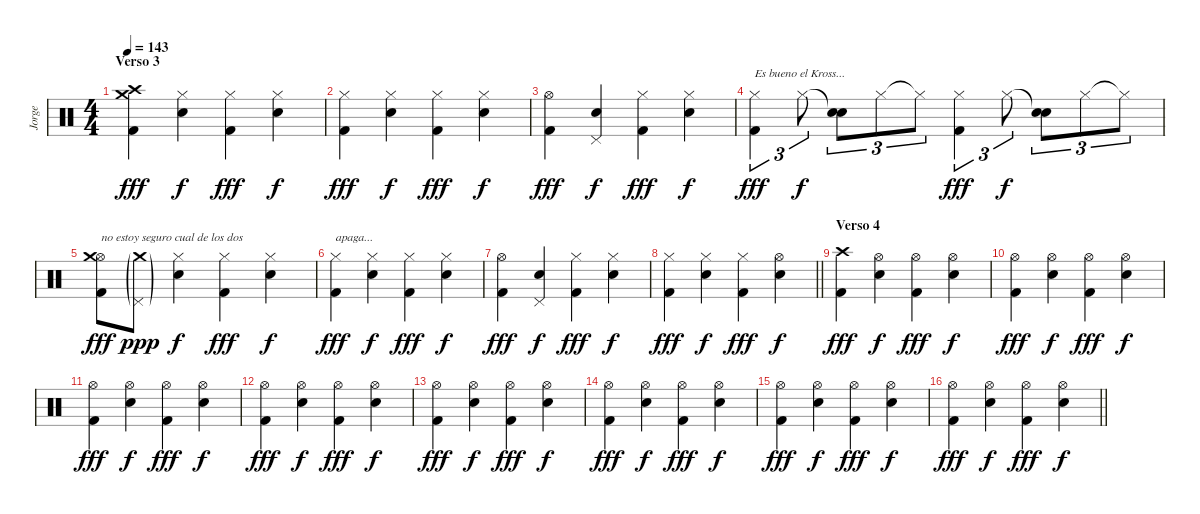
\track ("Jorge" "Jorge") {instrument percussion}
\staff {score}
\articulation defaults
\ts (4 4)
\section ("" "Verso 3")
\tempo 143
\clef neutral
\ks c
("Crash high (hit)" "Crash medium (hit)" "Kick (hit) 2").4{dy fff} ("Hi-Hat (closed)" "Electric Snare (hit)").4{dy f} ("Hi-Hat (closed)" "Kick (hit) 2").4{dy fff} ("Hi-Hat (closed)" "Electric Snare (hit)").4{dy f} |
("Hi-Hat (closed)" "Kick (hit) 2").4{dy fff} ("Hi-Hat (closed)" "Electric Snare (hit)").4{dy f} ("Hi-Hat (closed)" "Kick (hit) 2").4{dy fff} ("Hi-Hat (closed)" "Electric Snare (hit)").4{dy f} |
("Hi-Hat (open)" "Kick (hit) 2").4{dy fff} ("Pedal Hi-Hat (hit)" "Electric Snare (hit)").4{dy f} ("Hi-Hat (closed)" "Kick (hit) 2").4{dy fff} ("Hi-Hat (closed)" "Electric Snare (hit)").4{dy f} |
("Hi-Hat (closed)" "Kick (hit) 2").4{tu (3 2) txt "Es bueno el Kross..." dy fff} "Hi-Hat (closed)".8{tu (3 2) dy f} ("Snare (hit)"{t} "Electric Snare (hit)").8{tu (3 2)} "Hi-Hat (closed)".8{tu (3 2)} "Hi-Hat (closed)"{t}.8{tu (3 2)} ("Hi-Hat (closed)" "Kick (hit) 2").4{tu (3 2) dy fff} "Hi-Hat (closed)".8{tu (3 2) dy f} ("Snare (hit)"{t} "Electric Snare (hit)").8{tu (3 2)} "Hi-Hat (closed)".8{tu (3 2)} "Hi-Hat (closed)"{t}.8{tu (3 2)} |
("Hi-Hat (open)" "Crash medium (hit)" "Kick (hit) 2").8{txt "no estoy seguro cual de los dos" dy fff} ("Pedal Hi-Hat (hit)"{g} "Crash medium (hit)"{g}).8{dy ppp} ("Hi-Hat (closed)" "Electric Snare (hit)").4{dy f} ("Hi-Hat (closed)" "Kick (hit) 2").4{dy fff} ("Hi-Hat (closed)" "Electric Snare (hit)").4{dy f} |
("Hi-Hat (closed)" "Kick (hit) 2").4{txt "apaga..." dy fff} ("Hi-Hat (closed)" "Electric Snare (hit)").4{dy f} ("Hi-Hat (closed)" "Kick (hit) 2").4{dy fff} ("Hi-Hat (closed)" "Electric Snare (hit)").4{dy f} |
("Hi-Hat (open)" "Kick (hit) 2").4{dy fff} ("Pedal Hi-Hat (hit)" "Electric Snare (hit)").4{dy f} ("Hi-Hat (closed)" "Kick (hit) 2").4{dy fff} ("Hi-Hat (closed)" "Electric Snare (hit)").4{dy f} |
\barLineRight lightlight
("Hi-Hat (closed)" "Kick (hit) 2").4{dy fff} ("Hi-Hat (closed)" "Electric Snare (hit)").4{dy f} ("Hi-Hat (closed)" "Kick (hit) 2").4{dy fff} ("Hi-Hat (open)" "Electric Snare (hit)").4{dy f} |
\section ("" "Verso 4")
("Crash high (hit)" "Kick (hit) 2").4{dy fff} ("Hi-Hat (open)" "Electric Snare (hit)").4{dy f} ("Hi-Hat (open)" "Kick (hit) 2").4{dy fff} ("Hi-Hat (open)" "Electric Snare (hit)").4{dy f} |
("Hi-Hat (open)" "Kick (hit) 2").4{dy fff} ("Hi-Hat (open)" "Electric Snare (hit)").4{dy f} ("Hi-Hat (open)" "Kick (hit) 2").4{dy fff} ("Hi-Hat (open)" "Electric Snare (hit)").4{dy f} |
("Hi-Hat (open)" "Kick (hit) 2").4{dy fff} ("Hi-Hat (open)" "Electric Snare (hit)").4{dy f} ("Hi-Hat (open)" "Kick (hit) 2").4{dy fff} ("Hi-Hat (open)" "Electric Snare (hit)").4{dy f} |
("Hi-Hat (open)" "Kick (hit) 2").4{dy fff} ("Hi-Hat (open)" "Electric Snare (hit)").4{dy f} ("Hi-Hat (open)" "Kick (hit) 2").4{dy fff} ("Hi-Hat (open)" "Electric Snare (hit)").4{dy f} |
("Hi-Hat (open)" "Kick (hit) 2").4{dy fff} ("Hi-Hat (open)" "Electric Snare (hit)").4{dy f} ("Hi-Hat (open)" "Kick (hit) 2").4{dy fff} ("Hi-Hat (open)" "Electric Snare (hit)").4{dy f} |
("Hi-Hat (open)" "Kick (hit) 2").4{dy fff} ("Hi-Hat (open)" "Electric Snare (hit)").4{dy f} ("Hi-Hat (open)" "Kick (hit) 2").4{dy fff} ("Hi-Hat (open)" "Electric Snare (hit)").4{dy f} |
("Hi-Hat (open)" "Kick (hit) 2").4{dy fff} ("Hi-Hat (open)" "Electric Snare (hit)").4{dy f} ("Hi-Hat (open)" "Kick (hit) 2").4{dy fff} ("Hi-Hat (open)" "Electric Snare (hit)").4{dy f} |
\barLineRight lightlight
("Hi-Hat (open)" "Kick (hit) 2").4{dy fff} ("Hi-Hat (open)" "Electric Snare (hit)").4{dy f} ("Hi-Hat (open)" "Kick (hit) 2").4{dy fff} ("Hi-Hat (open)" "Electric Snare (hit)").4{dy f}
